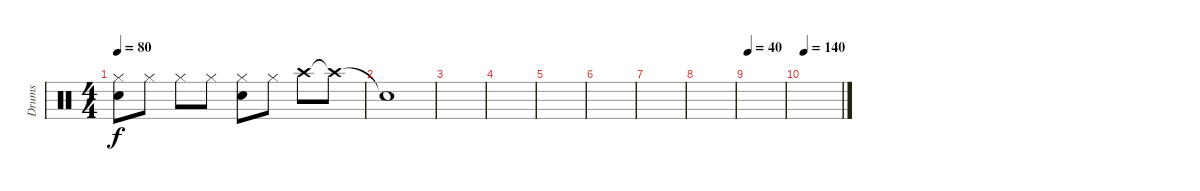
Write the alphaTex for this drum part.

\track ("Drums" "Drums") {instrument percussion}
\staff {score}
\articulation defaults
\ts (4 4)
\tempo 80
\clef neutral
\ks c
("Hi-Hat (closed)" "Snare (hit) 2").8{dy f} "Hi-Hat (closed)".8 "Hi-Hat (closed)".8 "Hi-Hat (closed)".8 ("Hi-Hat (closed)" "Snare (hit) 2").8 "Hi-Hat (closed)".8 "Crash high (hit)".8 "Crash high (hit)"{t}.8 |
"Snare (hit)"{t}.1 |
|
|
|
|
|
|
\tempo 40
|
\tempo 140
